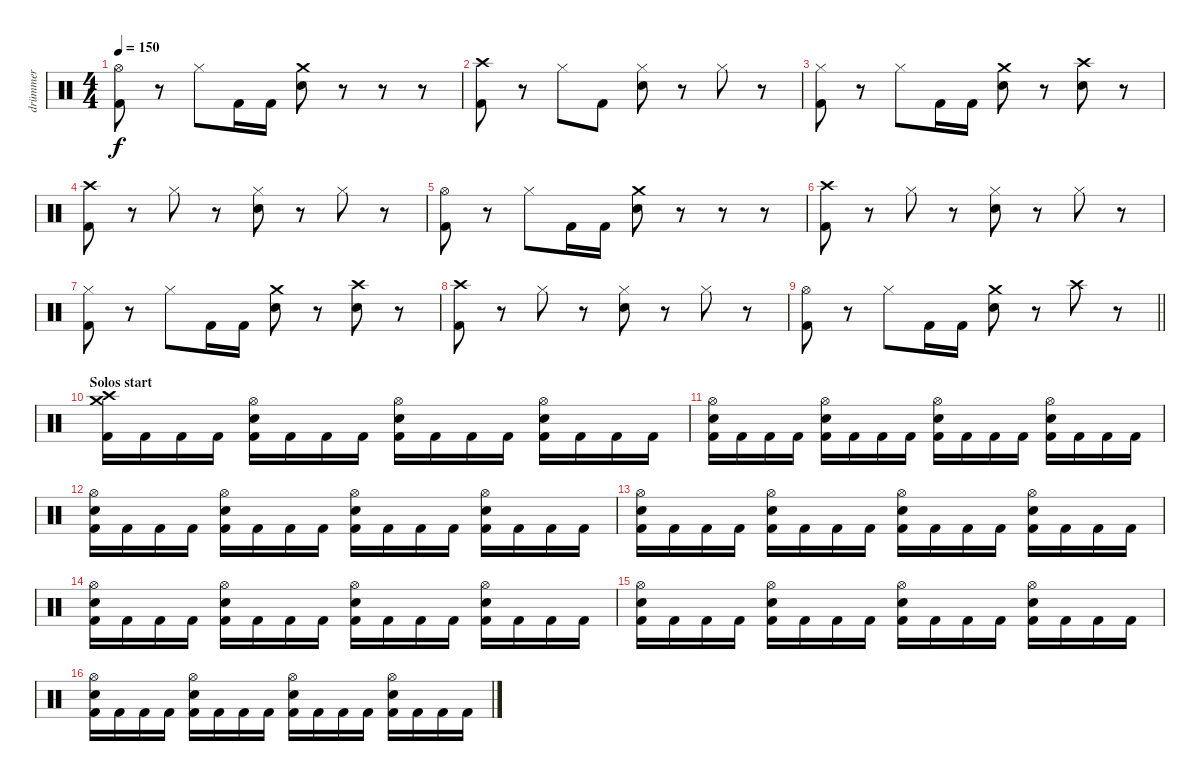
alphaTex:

\track ("drümmer" "drümmer") {instrument percussion}
\staff {score}
\articulation defaults
\ts (4 4)
\tempo 150
\clef neutral
\ks c
("Hi-Hat (open)" "Kick (hit) 2").8{dy f} r.8 "Hi-Hat (closed)".8 "Kick (hit) 2".16 "Kick (hit) 2".16 ("Crash medium (hit)" "Snare (hit) 2").8 r.8 r.8 r.8 |
("Crash high (hit)" "Kick (hit) 2").8 r.8 "Hi-Hat (closed)".8 "Kick (hit) 2".8 ("Hi-Hat (closed)" "Snare (hit) 2").8 r.8 "Hi-Hat (closed)".8 r.8 |
("Hi-Hat (closed)" "Kick (hit) 2").8 r.8 "Hi-Hat (closed)".8 "Kick (hit) 2".16 "Kick (hit) 2".16 ("Crash medium (hit)" "Snare (hit) 2").8 r.8 ("Crash high (hit)" "Snare (hit) 2").8 r.8 |
("Crash high (hit)" "Kick (hit) 2").8 r.8 "Hi-Hat (closed)".8 r.8 ("Hi-Hat (closed)" "Snare (hit) 2").8 r.8 "Hi-Hat (closed)".8 r.8 |
("Hi-Hat (open)" "Kick (hit) 2").8 r.8 "Hi-Hat (closed)".8 "Kick (hit) 2".16 "Kick (hit) 2".16 ("Crash medium (hit)" "Snare (hit) 2").8 r.8 r.8 r.8 |
("Crash high (hit)" "Kick (hit) 2").8 r.8 "Hi-Hat (closed)".8 r.8 ("Hi-Hat (closed)" "Snare (hit) 2").8 r.8 "Hi-Hat (closed)".8 r.8 |
("Hi-Hat (closed)" "Kick (hit) 2").8 r.8 "Hi-Hat (closed)".8 "Kick (hit) 2".16 "Kick (hit) 2".16 ("Crash medium (hit)" "Snare (hit) 2").8 r.8 ("Crash high (hit)" "Snare (hit) 2").8 r.8 |
("Crash high (hit)" "Kick (hit) 2").8 r.8 "Hi-Hat (closed)".8 r.8 ("Hi-Hat (closed)" "Snare (hit) 2").8 r.8 "Hi-Hat (closed)".8 r.8 |
\barLineRight lightlight
("Hi-Hat (open)" "Kick (hit) 2").8 r.8 "Hi-Hat (closed)".8 "Kick (hit) 2".16 "Kick (hit) 2".16 ("Crash medium (hit)" "Snare (hit) 2").8 r.8 "Crash high (hit)".8 r.8 |
\section ("" "Solos start")
("Crash high (hit)" "Crash medium (hit)" "Kick (hit) 2").16 "Kick (hit) 2".16 "Kick (hit) 2".16 "Kick (hit) 2".16 ("Hi-Hat (open)" "Snare (hit) 2" "Kick (hit) 2").16 "Kick (hit) 2".16 "Kick (hit) 2".16 "Kick (hit) 2".16 ("Hi-Hat (open)" "Snare (hit) 2" "Kick (hit) 2").16 "Kick (hit) 2".16 "Kick (hit) 2".16 "Kick (hit) 2".16 ("Hi-Hat (open)" "Snare (hit) 2" "Kick (hit) 2").16 "Kick (hit) 2".16 "Kick (hit) 2".16 "Kick (hit) 2".16 |
("Hi-Hat (open)" "Snare (hit) 2" "Kick (hit) 2").16 "Kick (hit) 2".16 "Kick (hit) 2".16 "Kick (hit) 2".16 ("Hi-Hat (open)" "Snare (hit) 2" "Kick (hit) 2").16 "Kick (hit) 2".16 "Kick (hit) 2".16 "Kick (hit) 2".16 ("Hi-Hat (open)" "Snare (hit) 2" "Kick (hit) 2").16 "Kick (hit) 2".16 "Kick (hit) 2".16 "Kick (hit) 2".16 ("Hi-Hat (open)" "Snare (hit) 2" "Kick (hit) 2").16 "Kick (hit) 2".16 "Kick (hit) 2".16 "Kick (hit) 2".16 |
("Hi-Hat (open)" "Snare (hit) 2" "Kick (hit) 2").16 "Kick (hit) 2".16 "Kick (hit) 2".16 "Kick (hit) 2".16 ("Hi-Hat (open)" "Snare (hit) 2" "Kick (hit) 2").16 "Kick (hit) 2".16 "Kick (hit) 2".16 "Kick (hit) 2".16 ("Hi-Hat (open)" "Snare (hit) 2" "Kick (hit) 2").16 "Kick (hit) 2".16 "Kick (hit) 2".16 "Kick (hit) 2".16 ("Hi-Hat (open)" "Snare (hit) 2" "Kick (hit) 2").16 "Kick (hit) 2".16 "Kick (hit) 2".16 "Kick (hit) 2".16 |
("Hi-Hat (open)" "Snare (hit) 2" "Kick (hit) 2").16 "Kick (hit) 2".16 "Kick (hit) 2".16 "Kick (hit) 2".16 ("Hi-Hat (open)" "Snare (hit) 2" "Kick (hit) 2").16 "Kick (hit) 2".16 "Kick (hit) 2".16 "Kick (hit) 2".16 ("Hi-Hat (open)" "Snare (hit) 2" "Kick (hit) 2").16 "Kick (hit) 2".16 "Kick (hit) 2".16 "Kick (hit) 2".16 ("Hi-Hat (open)" "Snare (hit) 2" "Kick (hit) 2").16 "Kick (hit) 2".16 "Kick (hit) 2".16 "Kick (hit) 2".16 |
("Hi-Hat (open)" "Snare (hit) 2" "Kick (hit) 2").16 "Kick (hit) 2".16 "Kick (hit) 2".16 "Kick (hit) 2".16 ("Hi-Hat (open)" "Snare (hit) 2" "Kick (hit) 2").16 "Kick (hit) 2".16 "Kick (hit) 2".16 "Kick (hit) 2".16 ("Hi-Hat (open)" "Snare (hit) 2" "Kick (hit) 2").16 "Kick (hit) 2".16 "Kick (hit) 2".16 "Kick (hit) 2".16 ("Hi-Hat (open)" "Snare (hit) 2" "Kick (hit) 2").16 "Kick (hit) 2".16 "Kick (hit) 2".16 "Kick (hit) 2".16 |
("Hi-Hat (open)" "Snare (hit) 2" "Kick (hit) 2").16 "Kick (hit) 2".16 "Kick (hit) 2".16 "Kick (hit) 2".16 ("Hi-Hat (open)" "Snare (hit) 2" "Kick (hit) 2").16 "Kick (hit) 2".16 "Kick (hit) 2".16 "Kick (hit) 2".16 ("Hi-Hat (open)" "Snare (hit) 2" "Kick (hit) 2").16 "Kick (hit) 2".16 "Kick (hit) 2".16 "Kick (hit) 2".16 ("Hi-Hat (open)" "Snare (hit) 2" "Kick (hit) 2").16 "Kick (hit) 2".16 "Kick (hit) 2".16 "Kick (hit) 2".16 |
("Hi-Hat (open)" "Snare (hit) 2" "Kick (hit) 2").16 "Kick (hit) 2".16 "Kick (hit) 2".16 "Kick (hit) 2".16 ("Hi-Hat (open)" "Snare (hit) 2" "Kick (hit) 2").16 "Kick (hit) 2".16 "Kick (hit) 2".16 "Kick (hit) 2".16 ("Hi-Hat (open)" "Snare (hit) 2" "Kick (hit) 2").16 "Kick (hit) 2".16 "Kick (hit) 2".16 "Kick (hit) 2".16 ("Hi-Hat (open)" "Snare (hit) 2" "Kick (hit) 2").16 "Kick (hit) 2".16 "Kick (hit) 2".16 "Kick (hit) 2".16
